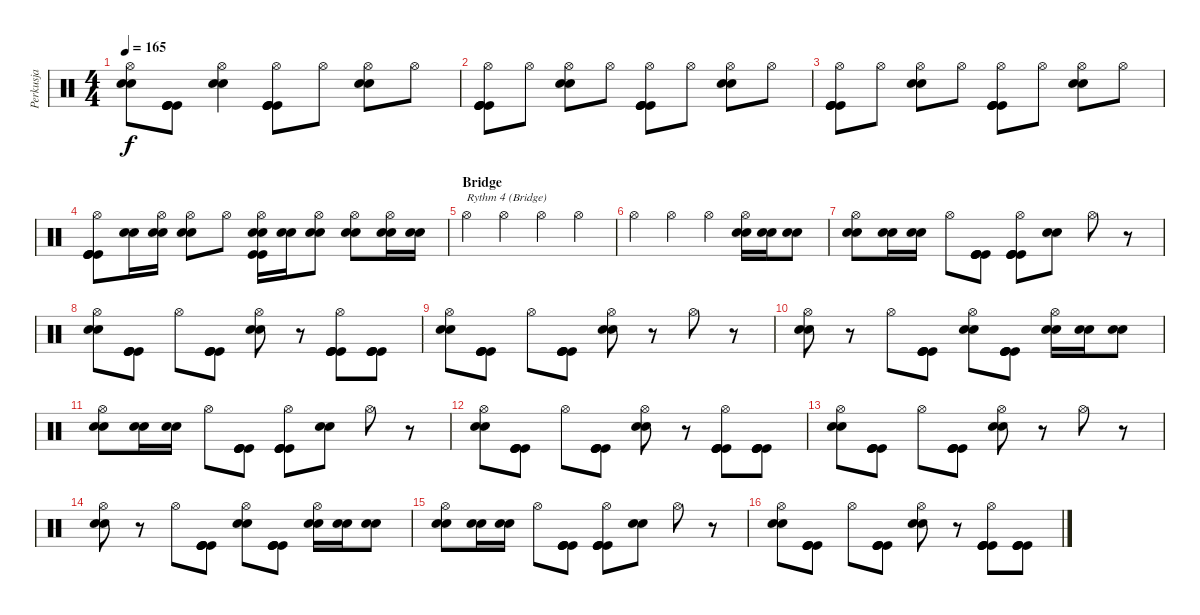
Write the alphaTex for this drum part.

\track ("Perkusja" "Perkusja") {instrument percussion}
\staff {score}
\articulation defaults
\ts (4 4)
\tempo 165
\clef neutral
\ks c
("Hi-Hat (open)" "Snare (hit) 2" "Snare (hit) 2").8{dy f} ("Kick (hit)" "Kick (hit)" "Kick (hit)" "Kick (hit)").8 ("Hi-Hat (open)" "Snare (hit) 2" "Snare (hit) 2").4 ("Hi-Hat (open)" "Kick (hit)" "Kick (hit)" "Kick (hit)" "Kick (hit)").8 "Hi-Hat (open)".8 ("Hi-Hat (open)" "Snare (hit) 2" "Snare (hit) 2").8 "Hi-Hat (open)".8 |
("Hi-Hat (open)" "Kick (hit)" "Kick (hit)" "Kick (hit)" "Kick (hit)").8 "Hi-Hat (open)".8 ("Hi-Hat (open)" "Snare (hit) 2" "Snare (hit) 2").8 "Hi-Hat (open)".8 ("Hi-Hat (open)" "Kick (hit)" "Kick (hit)" "Kick (hit)" "Kick (hit)").8 "Hi-Hat (open)".8 ("Hi-Hat (open)" "Snare (hit) 2" "Snare (hit) 2").8 "Hi-Hat (open)".8 |
("Hi-Hat (open)" "Kick (hit)" "Kick (hit)" "Kick (hit)" "Kick (hit)").8 "Hi-Hat (open)".8 ("Hi-Hat (open)" "Snare (hit) 2" "Snare (hit) 2").8 "Hi-Hat (open)".8 ("Hi-Hat (open)" "Kick (hit)" "Kick (hit)" "Kick (hit)" "Kick (hit)").8 "Hi-Hat (open)".8 ("Hi-Hat (open)" "Snare (hit) 2" "Snare (hit) 2").8 "Hi-Hat (open)".8 |
("Hi-Hat (open)" "Kick (hit)" "Kick (hit)" "Kick (hit)" "Kick (hit)").8 ("Snare (hit) 2" "Snare (hit) 2").16 ("Hi-Hat (open)" "Snare (hit) 2" "Snare (hit) 2").16 ("Hi-Hat (open)" "Snare (hit) 2" "Snare (hit) 2").8 "Hi-Hat (open)".8 ("Hi-Hat (open)" "Kick (hit)" "Kick (hit)" "Snare (hit) 2" "Snare (hit) 2").16 ("Snare (hit) 2" "Snare (hit) 2").16 ("Hi-Hat (open)" "Snare (hit) 2" "Snare (hit) 2").8 ("Hi-Hat (open)" "Snare (hit) 2" "Snare (hit) 2").8 ("Hi-Hat (open)" "Snare (hit) 2" "Snare (hit) 2").16 ("Snare (hit) 2" "Snare (hit) 2").16 |
\section ("" "Bridge")
"Hi-Hat (open)".4{txt "Rythm 4 (Bridge)"} "Hi-Hat (open)".4 "Hi-Hat (open)".4 "Hi-Hat (open)".4 |
"Hi-Hat (open)".4 "Hi-Hat (open)".4 "Hi-Hat (open)".4 ("Hi-Hat (open)" "Snare (hit) 2" "Snare (hit) 2").16 ("Snare (hit) 2" "Snare (hit) 2").16 ("Snare (hit) 2" "Snare (hit) 2").8 |
("Hi-Hat (open)" "Snare (hit) 2" "Snare (hit) 2").8 ("Snare (hit) 2" "Snare (hit) 2").16 ("Snare (hit) 2" "Snare (hit) 2").16 "Hi-Hat (open)".8 ("Kick (hit)" "Kick (hit)" "Kick (hit)" "Kick (hit)").8 ("Hi-Hat (open)" "Kick (hit)" "Kick (hit)" "Kick (hit)" "Kick (hit)").8 ("Snare (hit) 2" "Snare (hit) 2").8 "Hi-Hat (open)".8 r.8 |
("Hi-Hat (open)" "Snare (hit) 2" "Snare (hit) 2").8 ("Kick (hit)" "Kick (hit)" "Kick (hit)" "Kick (hit)").8 "Hi-Hat (open)".8 ("Kick (hit)" "Kick (hit)" "Kick (hit)" "Kick (hit)").8 ("Hi-Hat (open)" "Snare (hit) 2" "Snare (hit) 2").8 r.8 ("Hi-Hat (open)" "Kick (hit)" "Kick (hit)" "Kick (hit)" "Kick (hit)").8 ("Kick (hit)" "Kick (hit)" "Kick (hit)" "Kick (hit)").8 |
("Hi-Hat (open)" "Snare (hit) 2" "Snare (hit) 2").8 ("Kick (hit)" "Kick (hit)" "Kick (hit)" "Kick (hit)").8 "Hi-Hat (open)".8 ("Kick (hit)" "Kick (hit)" "Kick (hit)" "Kick (hit)").8 ("Hi-Hat (open)" "Snare (hit) 2" "Snare (hit) 2").8 r.8 "Hi-Hat (open)".8 r.8 |
("Hi-Hat (open)" "Snare (hit) 2" "Snare (hit) 2").8 r.8 "Hi-Hat (open)".8 ("Kick (hit)" "Kick (hit)" "Kick (hit)" "Kick (hit)").8 ("Hi-Hat (open)" "Snare (hit) 2" "Snare (hit) 2").8 ("Kick (hit)" "Kick (hit)" "Kick (hit)" "Kick (hit)").8 ("Hi-Hat (open)" "Snare (hit) 2" "Snare (hit) 2").16 ("Snare (hit) 2" "Snare (hit) 2").16 ("Snare (hit) 2" "Snare (hit) 2").8 |
("Hi-Hat (open)" "Snare (hit) 2" "Snare (hit) 2").8 ("Snare (hit) 2" "Snare (hit) 2").16 ("Snare (hit) 2" "Snare (hit) 2").16 "Hi-Hat (open)".8 ("Kick (hit)" "Kick (hit)" "Kick (hit)" "Kick (hit)").8 ("Hi-Hat (open)" "Kick (hit)" "Kick (hit)" "Kick (hit)" "Kick (hit)").8 ("Snare (hit) 2" "Snare (hit) 2").8 "Hi-Hat (open)".8 r.8 |
("Hi-Hat (open)" "Snare (hit) 2" "Snare (hit) 2").8 ("Kick (hit)" "Kick (hit)" "Kick (hit)" "Kick (hit)").8 "Hi-Hat (open)".8 ("Kick (hit)" "Kick (hit)" "Kick (hit)" "Kick (hit)").8 ("Hi-Hat (open)" "Snare (hit) 2" "Snare (hit) 2").8 r.8 ("Hi-Hat (open)" "Kick (hit)" "Kick (hit)" "Kick (hit)" "Kick (hit)").8 ("Kick (hit)" "Kick (hit)" "Kick (hit)" "Kick (hit)").8 |
("Hi-Hat (open)" "Snare (hit) 2" "Snare (hit) 2").8 ("Kick (hit)" "Kick (hit)" "Kick (hit)" "Kick (hit)").8 "Hi-Hat (open)".8 ("Kick (hit)" "Kick (hit)" "Kick (hit)" "Kick (hit)").8 ("Hi-Hat (open)" "Snare (hit) 2" "Snare (hit) 2").8 r.8 "Hi-Hat (open)".8 r.8 |
("Hi-Hat (open)" "Snare (hit) 2" "Snare (hit) 2").8 r.8 "Hi-Hat (open)".8 ("Kick (hit)" "Kick (hit)" "Kick (hit)" "Kick (hit)").8 ("Hi-Hat (open)" "Snare (hit) 2" "Snare (hit) 2").8 ("Kick (hit)" "Kick (hit)" "Kick (hit)" "Kick (hit)").8 ("Hi-Hat (open)" "Snare (hit) 2" "Snare (hit) 2").16 ("Snare (hit) 2" "Snare (hit) 2").16 ("Snare (hit) 2" "Snare (hit) 2").8 |
("Hi-Hat (open)" "Snare (hit) 2" "Snare (hit) 2").8 ("Snare (hit) 2" "Snare (hit) 2").16 ("Snare (hit) 2" "Snare (hit) 2").16 "Hi-Hat (open)".8 ("Kick (hit)" "Kick (hit)" "Kick (hit)" "Kick (hit)").8 ("Hi-Hat (open)" "Kick (hit)" "Kick (hit)" "Kick (hit)" "Kick (hit)").8 ("Snare (hit) 2" "Snare (hit) 2").8 "Hi-Hat (open)".8 r.8 |
("Hi-Hat (open)" "Snare (hit) 2" "Snare (hit) 2").8 ("Kick (hit)" "Kick (hit)" "Kick (hit)" "Kick (hit)").8 "Hi-Hat (open)".8 ("Kick (hit)" "Kick (hit)" "Kick (hit)" "Kick (hit)").8 ("Hi-Hat (open)" "Snare (hit) 2" "Snare (hit) 2").8 r.8 ("Hi-Hat (open)" "Kick (hit)" "Kick (hit)" "Kick (hit)" "Kick (hit)").8 ("Kick (hit)" "Kick (hit)" "Kick (hit)" "Kick (hit)").8
